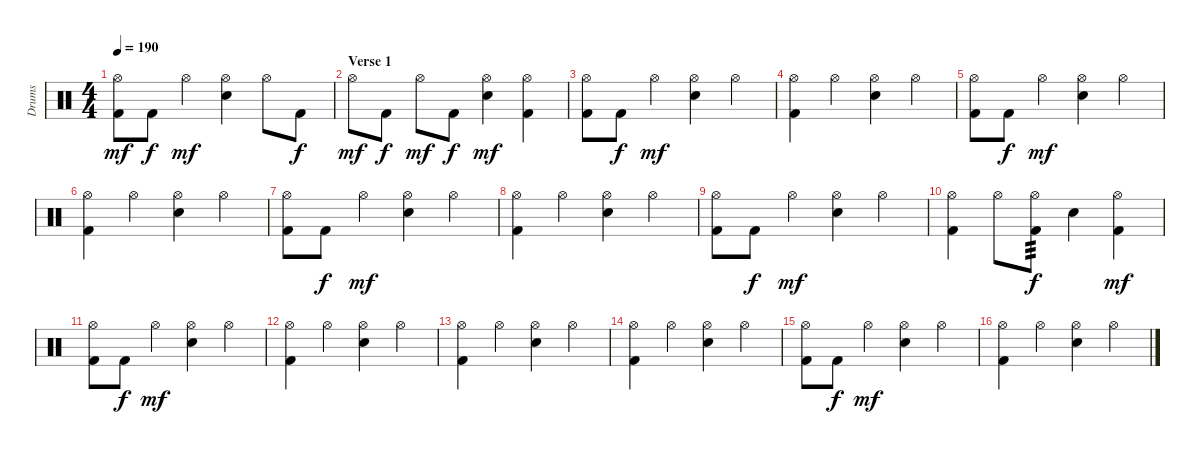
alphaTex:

\track ("Drums" "Drums") {instrument percussion}
\staff {score}
\articulation defaults
\ts (4 4)
\tempo 190
\clef neutral
\ks c
("Hi-Hat (open)" "Kick (hit) 2").8{dy mf} "Kick (hit) 2".8{dy f} "Hi-Hat (open)".4{dy mf} ("Hi-Hat (open)" "Electric Snare (hit)").4 "Hi-Hat (open)".8 "Kick (hit) 2".8{dy f} |
\section ("" "Verse 1")
"Hi-Hat (open)".8{dy mf} "Kick (hit) 2".8{dy f} "Hi-Hat (open)".8{dy mf} "Kick (hit) 2".8{dy f} ("Hi-Hat (open)" "Electric Snare (hit)").4{dy mf} ("Hi-Hat (open)" "Kick (hit) 2").4 |
("Hi-Hat (open)" "Kick (hit) 2").8 "Kick (hit) 2".8{dy f} "Hi-Hat (open)".4{dy mf} ("Hi-Hat (open)" "Electric Snare (hit)").4 "Hi-Hat (open)".4 |
("Hi-Hat (open)" "Kick (hit) 2").4 "Hi-Hat (open)".4 ("Hi-Hat (open)" "Electric Snare (hit)").4 "Hi-Hat (open)".4 |
("Hi-Hat (open)" "Kick (hit) 2").8 "Kick (hit) 2".8{dy f} "Hi-Hat (open)".4{dy mf} ("Hi-Hat (open)" "Electric Snare (hit)").4 "Hi-Hat (open)".4 |
("Hi-Hat (open)" "Kick (hit) 2").4 "Hi-Hat (open)".4 ("Hi-Hat (open)" "Electric Snare (hit)").4 "Hi-Hat (open)".4 |
("Hi-Hat (open)" "Kick (hit) 2").8 "Kick (hit) 2".8{dy f} "Hi-Hat (open)".4{dy mf} ("Hi-Hat (open)" "Electric Snare (hit)").4 "Hi-Hat (open)".4 |
("Hi-Hat (open)" "Kick (hit) 2").4 "Hi-Hat (open)".4 ("Hi-Hat (open)" "Electric Snare (hit)").4 "Hi-Hat (open)".4 |
("Hi-Hat (open)" "Kick (hit) 2").8 "Kick (hit) 2".8{dy f} "Hi-Hat (open)".4{dy mf} ("Hi-Hat (open)" "Electric Snare (hit)").4 "Hi-Hat (open)".4 |
("Hi-Hat (open)" "Kick (hit) 2").4 "Hi-Hat (open)".8 ("Hi-Hat (open)" "Kick (hit) 2").8{tp 3 dy f} "Electric Snare (hit)".4 ("Hi-Hat (open)" "Kick (hit) 2").4{dy mf} |
("Hi-Hat (open)" "Kick (hit) 2").8 "Kick (hit) 2".8{dy f} "Hi-Hat (open)".4{dy mf} ("Hi-Hat (open)" "Electric Snare (hit)").4 "Hi-Hat (open)".4 |
("Hi-Hat (open)" "Kick (hit) 2").4 "Hi-Hat (open)".4 ("Hi-Hat (open)" "Electric Snare (hit)").4 "Hi-Hat (open)".4 |
("Hi-Hat (open)" "Kick (hit) 2").4 "Hi-Hat (open)".4 ("Hi-Hat (open)" "Electric Snare (hit)").4 "Hi-Hat (open)".4 |
("Hi-Hat (open)" "Kick (hit) 2").4 "Hi-Hat (open)".4 ("Hi-Hat (open)" "Electric Snare (hit)").4 "Hi-Hat (open)".4 |
("Hi-Hat (open)" "Kick (hit) 2").8 "Kick (hit) 2".8{dy f} "Hi-Hat (open)".4{dy mf} ("Hi-Hat (open)" "Electric Snare (hit)").4 "Hi-Hat (open)".4 |
("Hi-Hat (open)" "Kick (hit) 2").4 "Hi-Hat (open)".4 ("Hi-Hat (open)" "Electric Snare (hit)").4 "Hi-Hat (open)".4
